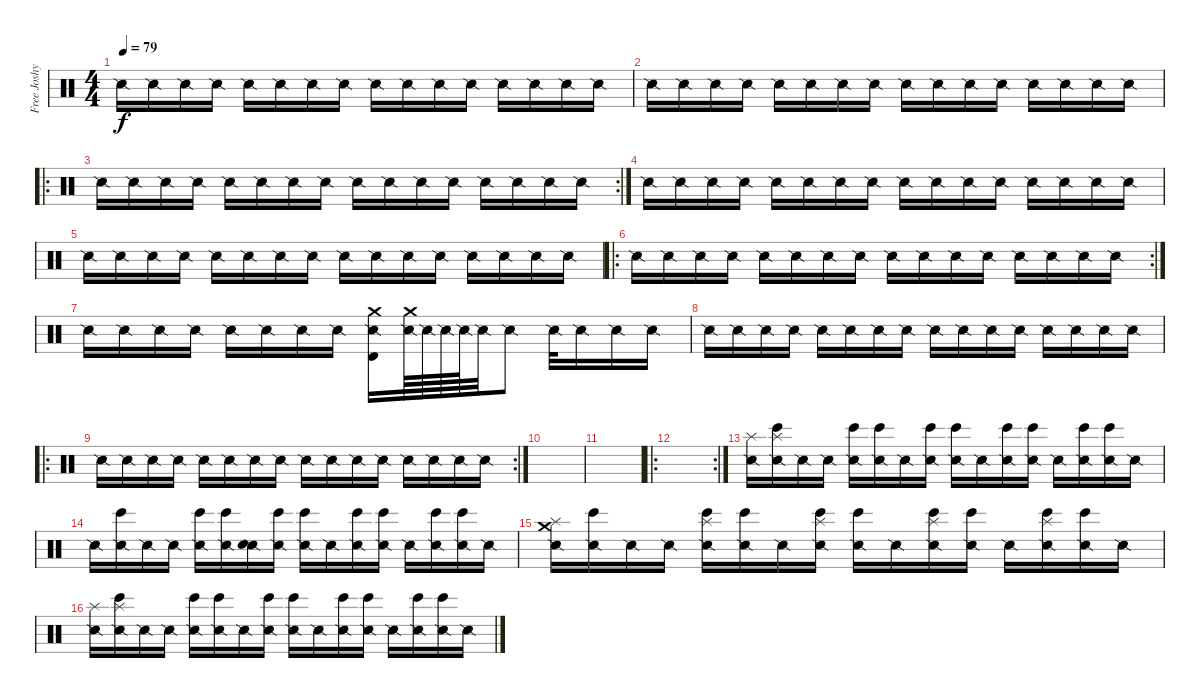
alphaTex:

\track ("Free Joshy" "Free Joshy") {instrument percussion}
\staff {score}
\articulation defaults
\ts (4 4)
\tempo 79
\clef neutral
\ks c "Snare (side stick) 2".16{dy f} "Snare (side stick) 2".16 "Snare (side stick) 2".16 "Snare (side stick) 2".16 "Snare (side stick) 2".16 "Snare (side stick) 2".16 "Snare (side stick) 2".16 "Snare (side stick) 2".16 "Snare (side stick) 2".16 "Snare (side stick) 2".16 "Snare (side stick) 2".16 "Snare (side stick) 2".16 "Snare (side stick) 2".16 "Snare (side stick) 2".16 "Snare (side stick) 2".16 "Snare (side stick) 2".16
|
"Snare (side stick) 2".16 "Snare (side stick) 2".16 "Snare (side stick) 2".16 "Snare (side stick) 2".16 "Snare (side stick) 2".16 "Snare (side stick) 2".16 "Snare (side stick) 2".16 "Snare (side stick) 2".16 "Snare (side stick) 2".16 "Snare (side stick) 2".16 "Snare (side stick) 2".16 "Snare (side stick) 2".16 "Snare (side stick) 2".16 "Snare (side stick) 2".16 "Snare (side stick) 2".16 "Snare (side stick) 2".16 |
\ro
\rc 2 "Snare (side stick) 2".16 "Snare (side stick) 2".16 "Snare (side stick) 2".16 "Snare (side stick) 2".16 "Snare (side stick) 2".16 "Snare (side stick) 2".16 "Snare (side stick) 2".16 "Snare (side stick) 2".16 "Snare (side stick) 2".16 "Snare (side stick) 2".16 "Snare (side stick) 2".16 "Snare (side stick) 2".16 "Snare (side stick) 2".16 "Snare (side stick) 2".16 "Snare (side stick) 2".16 "Snare (side stick) 2".16
|
"Snare (side stick) 2".16 "Snare (side stick) 2".16 "Snare (side stick) 2".16 "Snare (side stick) 2".16 "Snare (side stick) 2".16 "Snare (side stick) 2".16 "Snare (side stick) 2".16 "Snare (side stick) 2".16 "Snare (side stick) 2".16 "Snare (side stick) 2".16 "Snare (side stick) 2".16 "Snare (side stick) 2".16 "Snare (side stick) 2".16 "Snare (side stick) 2".16 "Snare (side stick) 2".16 "Snare (side stick) 2".16 |
"Snare (side stick) 2".16 "Snare (side stick) 2".16 "Snare (side stick) 2".16 "Snare (side stick) 2".16 "Snare (side stick) 2".16 "Snare (side stick) 2".16 "Snare (side stick) 2".16 "Snare (side stick) 2".16 "Snare (side stick) 2".16 "Snare (side stick) 2".16 "Snare (side stick) 2".16 "Snare (side stick) 2".16 "Snare (side stick) 2".16 "Snare (side stick) 2".16 "Snare (side stick) 2".16 "Snare (side stick) 2".16 |
\ro
\rc 2 "Snare (side stick) 2".16 "Snare (side stick) 2".16 "Snare (side stick) 2".16 "Snare (side stick) 2".16 "Snare (side stick) 2".16 "Snare (side stick) 2".16 "Snare (side stick) 2".16 "Snare (side stick) 2".16 "Snare (side stick) 2".16 "Snare (side stick) 2".16 "Snare (side stick) 2".16 "Snare (side stick) 2".16 "Snare (side stick) 2".16 "Snare (side stick) 2".16 "Snare (side stick) 2".16 "Snare (side stick) 2".16
|
"Snare (side stick) 2".16 "Snare (side stick) 2".16 "Snare (side stick) 2".16 "Snare (side stick) 2".16 "Snare (side stick) 2".16 "Snare (side stick) 2".16 "Snare (side stick) 2".16 "Snare (side stick) 2".16 ("Snare (side stick) 2" "Crash medium (hit)" "Timbale high (hit)").16 ("Snare (side stick) 2" "Crash medium (hit)").64 "Snare (side stick) 2".64 "Snare (side stick) 2".64 "Snare (side stick) 2".64 "Snare (side stick) 2".32 "Snare (side stick) 2".8 "Snare (side stick) 2".32 "Snare (side stick) 2".16 "Snare (side stick) 2".16 "Snare (side stick) 2".16 |
"Snare (side stick) 2".16 "Snare (side stick) 2".16 "Snare (side stick) 2".16 "Snare (side stick) 2".16 "Snare (side stick) 2".16 "Snare (side stick) 2".16 "Snare (side stick) 2".16 "Snare (side stick) 2".16 "Snare (side stick) 2".16 "Snare (side stick) 2".16 "Snare (side stick) 2".16 "Snare (side stick) 2".16 "Snare (side stick) 2".16 "Snare (side stick) 2".16 "Snare (side stick) 2".16 "Snare (side stick) 2".16 |
\ro
\rc 2 "Snare (side stick) 2".16 "Snare (side stick) 2".16 "Snare (side stick) 2".16 "Snare (side stick) 2".16 "Snare (side stick) 2".16 "Snare (side stick) 2".16 "Snare (side stick) 2".16 "Snare (side stick) 2".16 "Snare (side stick) 2".16 "Snare (side stick) 2".16 "Snare (side stick) 2".16 "Snare (side stick) 2".16 "Snare (side stick) 2".16 "Snare (side stick) 2".16 "Snare (side stick) 2".16 "Snare (side stick) 2".16
|
|
|
\ro
\rc 2
|
("Snare (side stick) 2" "Splash (hit)").16 ("Snare (side stick) 2" "Splash (hit)" "Bongo High (hit)").16 "Snare (side stick) 2".16 "Snare (side stick) 2".16 ("Snare (side stick) 2" "Bongo High (hit)").16 ("Snare (side stick) 2" "Bongo High (hit)").16 "Snare (side stick) 2".16 ("Snare (side stick) 2" "Bongo High (hit)").16 ("Snare (side stick) 2" "Bongo High (hit)").16 "Snare (side stick) 2".16 ("Snare (side stick) 2" "Bongo High (hit)").16 ("Snare (side stick) 2" "Bongo High (hit)").16 "Snare (side stick) 2".16 ("Snare (side stick) 2" "Bongo High (hit)").16 ("Snare (side stick) 2" "Bongo High (hit)").16 "Snare (side stick) 2".16 |
"Snare (side stick) 2".16 ("Snare (side stick) 2" "Bongo High (hit)").16 "Snare (side stick) 2".16 "Snare (side stick) 2".16 ("Snare (side stick) 2" "Bongo High (hit)").16 ("Snare (side stick) 2" "Bongo High (hit)").16 ("Snare (side stick) 2" "Snare (hit)").16 ("Snare (side stick) 2" "Bongo High (hit)").16 ("Snare (side stick) 2" "Bongo High (hit)").16 "Snare (side stick) 2".16 ("Snare (side stick) 2" "Bongo High (hit)").16 ("Snare (side stick) 2" "Bongo High (hit)").16 "Snare (side stick) 2".16 ("Snare (side stick) 2" "Bongo High (hit)").16 ("Snare (side stick) 2" "Bongo High (hit)").16 "Snare (side stick) 2".16 |
("Snare (side stick) 2" "Splash (hit)" "Crash medium (hit)").16 ("Snare (side stick) 2" "Bongo High (hit)").16 "Snare (side stick) 2".16 "Snare (side stick) 2".16 ("Snare (side stick) 2" "Bongo High (hit)" "Splash (hit)").16 ("Snare (side stick) 2" "Bongo High (hit)").16 "Snare (side stick) 2".16 ("Snare (side stick) 2" "Bongo High (hit)" "Splash (hit)").16 ("Snare (side stick) 2" "Bongo High (hit)").16 "Snare (side stick) 2".16 ("Snare (side stick) 2" "Bongo High (hit)" "Splash (hit)").16 ("Snare (side stick) 2" "Bongo High (hit)").16 "Snare (side stick) 2".16 ("Snare (side stick) 2" "Bongo High (hit)" "Splash (hit)").16 ("Snare (side stick) 2" "Bongo High (hit)").16 "Snare (side stick) 2".16 |
("Snare (side stick) 2" "Splash (hit)").16 ("Snare (side stick) 2" "Splash (hit)" "Bongo High (hit)").16 "Snare (side stick) 2".16 "Snare (side stick) 2".16 ("Snare (side stick) 2" "Bongo High (hit)").16 ("Snare (side stick) 2" "Bongo High (hit)").16 "Snare (side stick) 2".16 ("Snare (side stick) 2" "Bongo High (hit)").16 ("Snare (side stick) 2" "Bongo High (hit)").16 "Snare (side stick) 2".16 ("Snare (side stick) 2" "Bongo High (hit)").16 ("Snare (side stick) 2" "Bongo High (hit)").16 "Snare (side stick) 2".16 ("Snare (side stick) 2" "Bongo High (hit)").16 ("Snare (side stick) 2" "Bongo High (hit)").16 "Snare (side stick) 2".16
